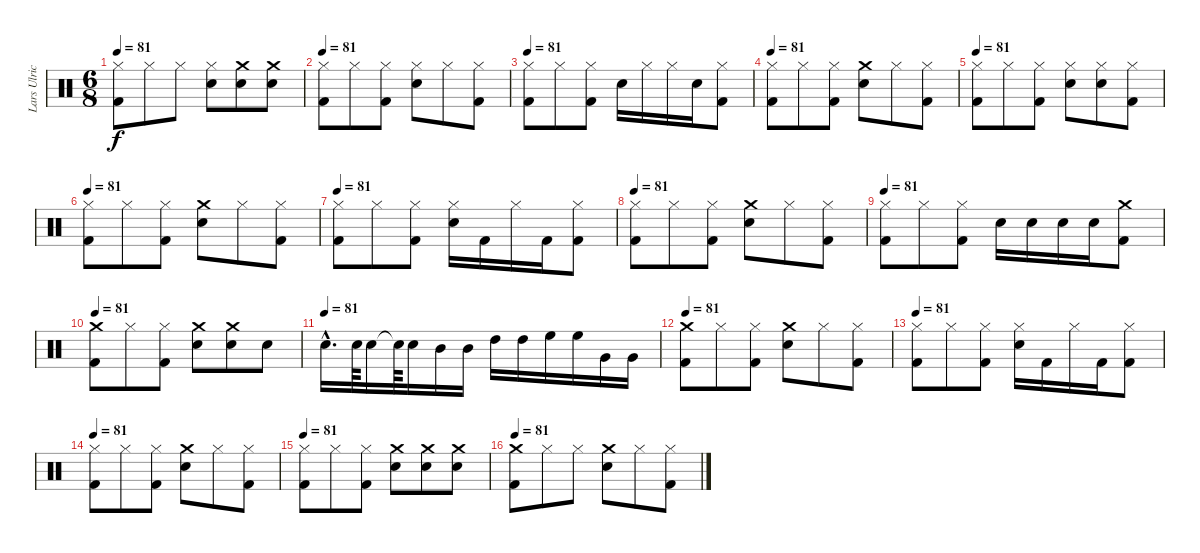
\track ("Lars Ulrich" "Lars Ulric") {instrument percussion}
\staff {score}
\articulation defaults
\ts (6 8)
\tempo 81
\clef neutral
\ks c
("Hi-Hat (closed)" "Kick (hit) 2").8{dy f} "Hi-Hat (closed)".8 "Hi-Hat (closed)".8 ("Snare (hit) 2" "Hi-Hat (closed)").8 ("Crash medium (hit)" "Snare (hit) 2").8 ("Crash medium (hit)" "Snare (hit) 2").8 |
\tempo 81
("Kick (hit) 2" "Hi-Hat (closed)").8 "Hi-Hat (closed)".8 ("Kick (hit) 2" "Hi-Hat (closed)").8 ("Snare (hit) 2" "Hi-Hat (closed)").8 "Hi-Hat (closed)".8 ("Kick (hit) 2" "Hi-Hat (closed)").8 |
\tempo 81
("Hi-Hat (closed)" "Kick (hit) 2").8 "Hi-Hat (closed)".8 ("Kick (hit) 2" "Hi-Hat (closed)").8 "Snare (hit) 2".16 "Hi-Hat (closed)".16 "Hi-Hat (closed)".16 "Snare (hit) 2".16 ("Hi-Hat (closed)" "Kick (hit) 2").8 |
\tempo 81
("Hi-Hat (closed)" "Kick (hit) 2").8 "Hi-Hat (closed)".8 ("Kick (hit) 2" "Hi-Hat (closed)").8 ("Crash medium (hit)" "Snare (hit) 2").8 "Hi-Hat (closed)".8 ("Kick (hit) 2" "Hi-Hat (closed)").8 |
\tempo 81
("Hi-Hat (closed)" "Kick (hit) 2").8 "Hi-Hat (closed)".8 ("Kick (hit) 2" "Hi-Hat (closed)").8 ("Hi-Hat (closed)" "Snare (hit) 2").8 ("Hi-Hat (closed)" "Snare (hit) 2").8 ("Kick (hit) 2" "Hi-Hat (closed)").8 |
\tempo 81
("Hi-Hat (closed)" "Kick (hit) 2").8 "Hi-Hat (closed)".8 ("Kick (hit) 2" "Hi-Hat (closed)").8 ("Crash medium (hit)" "Snare (hit) 2").8 "Hi-Hat (closed)".8 ("Kick (hit) 2" "Hi-Hat (closed)").8 |
\tempo 81
("Hi-Hat (closed)" "Kick (hit) 2").8 "Hi-Hat (closed)".8 ("Kick (hit) 2" "Hi-Hat (closed)").8 ("Snare (hit) 2" "Hi-Hat (closed)").16 "Kick (hit) 2".16 "Hi-Hat (closed)".16 "Kick (hit) 2".16 ("Kick (hit) 2" "Hi-Hat (closed)").8 |
\tempo 81
("Kick (hit) 2" "Hi-Hat (closed)").8 "Hi-Hat (closed)".8 ("Kick (hit) 2" "Hi-Hat (closed)").8 ("Crash medium (hit)" "Snare (hit) 2").8 "Hi-Hat (closed)".8 ("Hi-Hat (closed)" "Kick (hit) 2").8 |
\tempo 81
("Kick (hit) 2" "Hi-Hat (closed)").8 "Hi-Hat (closed)".8 ("Kick (hit) 2" "Hi-Hat (closed)").8 "Snare (hit) 2".16 "Snare (hit) 2".16 "Snare (hit) 2".16 "Snare (hit) 2".16 ("Crash medium (hit)" "Kick (hit) 2").8 |
\tempo 81
("Kick (hit) 2" "Crash medium (hit)").8 "Hi-Hat (closed)".8 ("Kick (hit) 2" "Hi-Hat (closed)").8 ("Crash medium (hit)" "Snare (hit) 2").8 ("Crash medium (hit)" "Snare (hit) 2").8 "Snare (hit) 2".8 |
\tempo (81)
"Snare (hit) 2"{hac}.16{d} "Snare (hit) 2".64 "Snare (hit) 2".16 "Snare (hit)"{t}.64 "Snare (hit) 2".16 "Mid Tom (hit)".16 "Mid Tom (hit)".16 "High Tom (hit)".16 "High Tom (hit)".16 "High Floor Tom (hit)".16 "High Floor Tom (hit)".16 "Very Low Tom (hit)".16 "Very Low Tom (hit)".16 |
\tempo 81
("Kick (hit) 2" "Crash medium (hit)").8 "Hi-Hat (closed)".8 ("Kick (hit) 2" "Hi-Hat (closed)").8 ("Crash medium (hit)" "Snare (hit) 2").8 "Hi-Hat (closed)".8 ("Kick (hit) 2" "Hi-Hat (closed)").8 |
\tempo 81
("Hi-Hat (closed)" "Kick (hit) 2").8 "Hi-Hat (closed)".8 ("Kick (hit) 2" "Hi-Hat (closed)").8 ("Snare (hit) 2" "Hi-Hat (closed)").16 "Kick (hit) 2".16 "Hi-Hat (closed)".16 "Kick (hit) 2".16 ("Kick (hit) 2" "Hi-Hat (closed)").8 |
\tempo 81
("Hi-Hat (closed)" "Kick (hit) 2").8 "Hi-Hat (closed)".8 ("Hi-Hat (closed)" "Kick (hit) 2").8 ("Crash medium (hit)" "Snare (hit) 2").8 "Hi-Hat (closed)".8 ("Hi-Hat (closed)" "Kick (hit) 2").8 |
\tempo 81
("Hi-Hat (closed)" "Kick (hit) 2").8 "Hi-Hat (closed)".8 ("Kick (hit) 2" "Hi-Hat (closed)").8 ("Crash medium (hit)" "Snare (hit) 2").8 ("Crash medium (hit)" "Snare (hit) 2").8 ("Crash medium (hit)" "Snare (hit) 2").8 |
\tempo 81
("Crash medium (hit)" "Kick (hit) 2").8 "Hi-Hat (closed)".8 "Hi-Hat (closed)".8 ("Crash medium (hit)" "Snare (hit) 2").8 "Hi-Hat (closed)".8 ("Kick (hit) 2" "Hi-Hat (closed)").8
